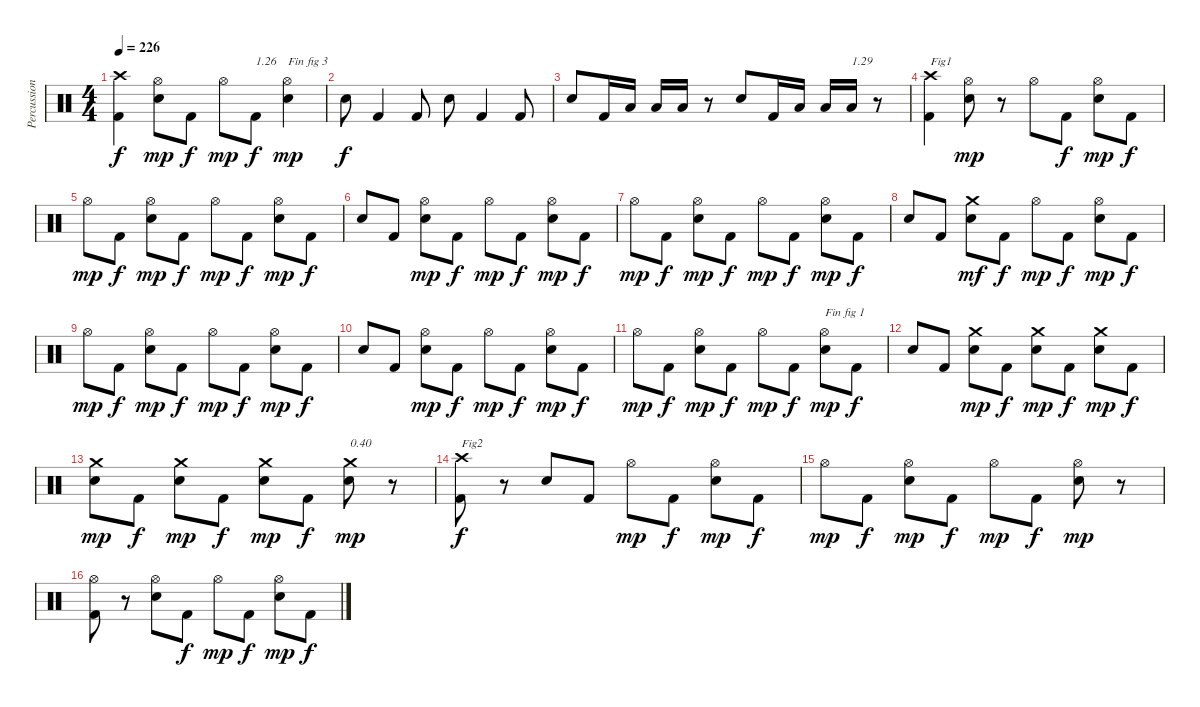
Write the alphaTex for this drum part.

\track ("Percussions" "Percussion") {instrument percussion}
\staff {score}
\articulation defaults
\ts (4 4)
\tempo 226
\clef neutral
\ks c
("Kick (hit) 2" "Crash high (hit)").4{dy f} ("Electric Snare (hit)" "Hi-Hat (open)").8{dy mp} "Kick (hit) 2".8{dy f} "Hi-Hat (open)".8{dy mp} "Kick (hit) 2".8{txt "1.26" dy f} ("Electric Snare (hit)" "Hi-Hat (open)").4{txt "Fin fig 3" dy mp} |
"Electric Snare (hit)".8{dy f} "Kick (hit) 2".4 "Kick (hit) 2".8 "Electric Snare (hit)".8 "Kick (hit) 2".4 "Kick (hit) 2".8 |
"Electric Snare (hit)".8 "Kick (hit) 2".16 "Low Floor Tom (hit)".16 "Low Floor Tom (hit)".16 "Low Floor Tom (hit)".16 r.8 "Electric Snare (hit)".8 "Kick (hit) 2".16 "Low Floor Tom (hit)".16 "Low Floor Tom (hit)".16 "Low Floor Tom (hit)".16{txt "1.29"} r.8 |
("Kick (hit) 2" "Crash high (hit)").4{txt "Fig1 "} ("Electric Snare (hit)" "Hi-Hat (open)").8{dy mp} r.8 "Hi-Hat (open)".8 "Kick (hit) 2".8{dy f} ("Electric Snare (hit)" "Hi-Hat (open)").8{dy mp} "Kick (hit) 2".8{dy f} |
"Hi-Hat (open)".8{dy mp} "Kick (hit) 2".8{dy f} ("Electric Snare (hit)" "Hi-Hat (open)").8{dy mp} "Kick (hit) 2".8{dy f} "Hi-Hat (open)".8{dy mp} "Kick (hit) 2".8{dy f} ("Electric Snare (hit)" "Hi-Hat (open)").8{dy mp} "Kick (hit) 2".8{dy f} |
"Electric Snare (hit)".8 "Kick (hit) 2".8 ("Electric Snare (hit)" "Hi-Hat (open)").8{dy mp} "Kick (hit) 2".8{dy f} "Hi-Hat (open)".8{dy mp} "Kick (hit) 2".8{dy f} ("Electric Snare (hit)" "Hi-Hat (open)").8{dy mp} "Kick (hit) 2".8{dy f} |
"Hi-Hat (open)".8{dy mp} "Kick (hit) 2".8{dy f} ("Electric Snare (hit)" "Hi-Hat (open)").8{dy mp} "Kick (hit) 2".8{dy f} "Hi-Hat (open)".8{dy mp} "Kick (hit) 2".8{dy f} ("Electric Snare (hit)" "Hi-Hat (open)").8{dy mp} "Kick (hit) 2".8{dy f} |
"Electric Snare (hit)".8 "Kick (hit) 2".8 ("Electric Snare (hit)" "Crash medium (hit)").8{dy mf} "Kick (hit) 2".8{dy f} "Hi-Hat (open)".8{dy mp} "Kick (hit) 2".8{dy f} ("Electric Snare (hit)" "Hi-Hat (open)").8{dy mp} "Kick (hit) 2".8{dy f} |
"Hi-Hat (open)".8{dy mp} "Kick (hit) 2".8{dy f} ("Electric Snare (hit)" "Hi-Hat (open)").8{dy mp} "Kick (hit) 2".8{dy f} "Hi-Hat (open)".8{dy mp} "Kick (hit) 2".8{dy f} ("Electric Snare (hit)" "Hi-Hat (open)").8{dy mp} "Kick (hit) 2".8{dy f} |
"Electric Snare (hit)".8 "Kick (hit) 2".8 ("Electric Snare (hit)" "Hi-Hat (open)").8{dy mp} "Kick (hit) 2".8{dy f} "Hi-Hat (open)".8{dy mp} "Kick (hit) 2".8{dy f} ("Electric Snare (hit)" "Hi-Hat (open)").8{dy mp} "Kick (hit) 2".8{dy f} |
"Hi-Hat (open)".8{dy mp} "Kick (hit) 2".8{dy f} ("Electric Snare (hit)" "Hi-Hat (open)").8{dy mp} "Kick (hit) 2".8{dy f} "Hi-Hat (open)".8{dy mp} "Kick (hit) 2".8{dy f} ("Electric Snare (hit)" "Hi-Hat (open)").8{txt "Fin fig 1" dy mp} "Kick (hit) 2".8{dy f} |
"Electric Snare (hit)".8 "Kick (hit) 2".8 ("Electric Snare (hit)" "Crash medium (hit)").8{dy mp} "Kick (hit) 2".8{dy f} ("Electric Snare (hit)" "Crash medium (hit)").8{dy mp} "Kick (hit) 2".8{dy f} ("Electric Snare (hit)" "Crash medium (hit)").8{dy mp} "Kick (hit) 2".8{dy f} |
("Electric Snare (hit)" "Crash medium (hit)").8{dy mp} "Kick (hit) 2".8{dy f} ("Electric Snare (hit)" "Crash medium (hit)").8{dy mp} "Kick (hit) 2".8{dy f} ("Electric Snare (hit)" "Crash medium (hit)").8{dy mp} "Kick (hit) 2".8{dy f} ("Electric Snare (hit)" "Crash medium (hit)").8{txt "0.40" dy mp} r.8 |
("Kick (hit) 2" "Crash high (hit)").8{txt "Fig2" dy f} r.8 "Electric Snare (hit)".8 "Kick (hit) 2".8 "Hi-Hat (open)".8{dy mp} "Kick (hit) 2".8{dy f} ("Electric Snare (hit)" "Hi-Hat (open)").8{dy mp} "Kick (hit) 2".8{dy f} |
"Hi-Hat (open)".8{dy mp} "Kick (hit) 2".8{dy f} ("Electric Snare (hit)" "Hi-Hat (open)").8{dy mp} "Kick (hit) 2".8{dy f} "Hi-Hat (open)".8{dy mp} "Kick (hit) 2".8{dy f} ("Electric Snare (hit)" "Hi-Hat (open)").8{dy mp} r.8 |
("Kick (hit) 2" "Hi-Hat (open)").8 r.8 ("Electric Snare (hit)" "Hi-Hat (open)").8 "Kick (hit) 2".8{dy f} "Hi-Hat (open)".8{dy mp} "Kick (hit) 2".8{dy f} ("Electric Snare (hit)" "Hi-Hat (open)").8{dy mp} "Kick (hit) 2".8{dy f}
